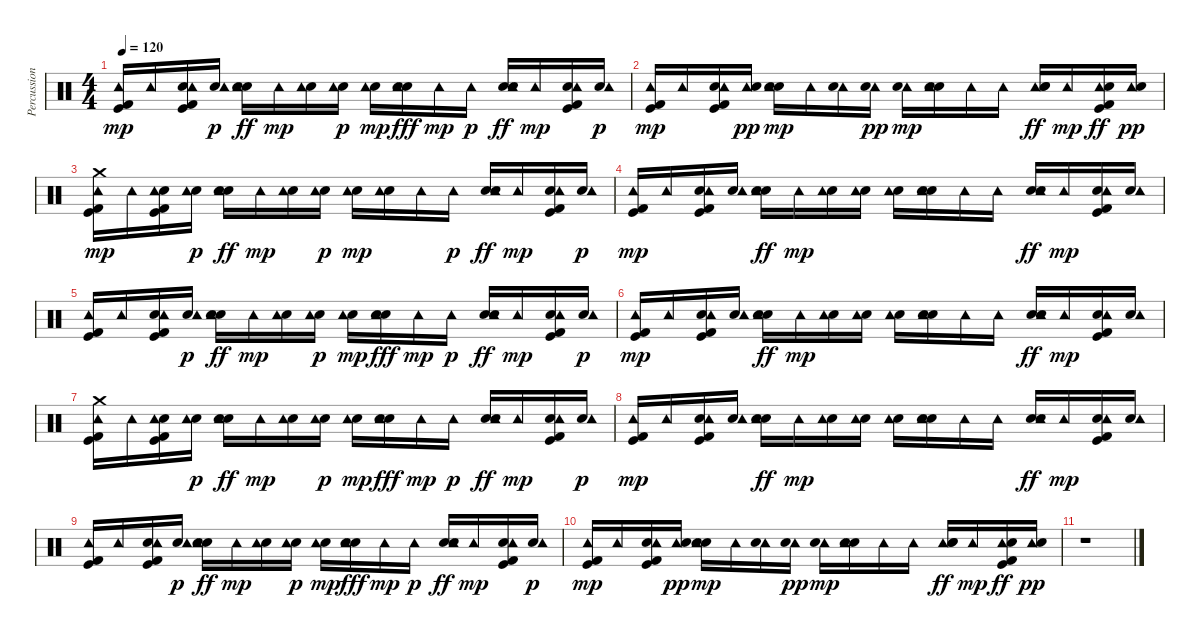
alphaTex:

\track ("Percussions" "Percussion") {instrument percussion}
\staff {score}
\articulation defaults
\ts (4 4)
\tempo 120
\clef neutral
\ks c
("Kick (hit) 2" "Kick (hit)" "Tambourine (hit)").16{dy mp} "Tambourine (hit)".16 ("Electric Snare (hit)" "Kick (hit) 2" "Kick (hit)" "Tambourine (hit)").16 ("Electric Snare (hit)" "Tambourine (hit)").16{dy p} ("Snare (hit) 2" "Tambourine (hit)" "Electric Snare (hit)").16{dy ff} "Tambourine (hit)".16{dy mp} ("Electric Snare (hit)" "Tambourine (hit)").16 ("Electric Snare (hit)" "Tambourine (hit)").16{dy p} ("Electric Snare (hit)" "Tambourine (hit)").16{dy mp} ("Electric Snare (hit)" "Tambourine (hit)" "Snare (hit) 2").16{dy fff} "Tambourine (hit)".16{dy mp} "Tambourine (hit)".16{dy p} ("Snare (hit) 2" "Tambourine (hit)" "Electric Snare (hit)").16{dy ff} "Tambourine (hit)".16{dy mp} ("Electric Snare (hit)" "Kick (hit) 2" "Kick (hit)" "Tambourine (hit)").16 ("Electric Snare (hit)" "Tambourine (hit)").16{dy p} |
("Kick (hit)" "Kick (hit) 2" "Tambourine (hit)").16{dy mp} "Tambourine (hit)".16 ("Electric Snare (hit)" "Kick (hit)" "Kick (hit) 2" "Tambourine (hit)").16 ("Tambourine (hit)" "Electric Snare (hit)").16{dy pp} ("Snare (hit) 2" "Electric Snare (hit)" "Tambourine (hit)").16{dy mp} "Tambourine (hit)".16 ("Tambourine (hit)" "Electric Snare (hit)").16 ("Tambourine (hit)" "Electric Snare (hit)").16{dy pp} ("Tambourine (hit)" "Electric Snare (hit)").16{dy mp} ("Snare (hit) 2" "Electric Snare (hit)" "Tambourine (hit)").16 "Tambourine (hit)".16 "Tambourine (hit)".16 ("Tambourine (hit)" "Snare (hit) 2" "Electric Snare (hit)").16{dy ff} "Tambourine (hit)".16{dy mp} ("Tambourine (hit)" "Electric Snare (hit)" "Kick (hit) 2" "Kick (hit)").16{dy ff} ("Tambourine (hit)" "Electric Snare (hit)").16{dy pp} |
("Kick (hit) 2" "Kick (hit)" "Crash medium (hit)" "Tambourine (hit)").16{dy mp} "Tambourine (hit)".16 ("Electric Snare (hit)" "Kick (hit) 2" "Kick (hit)" "Tambourine (hit)").16 ("Electric Snare (hit)" "Tambourine (hit)").16{dy p} ("Snare (hit) 2" "Tambourine (hit)" "Electric Snare (hit)").16{dy ff} "Tambourine (hit)".16{dy mp} ("Electric Snare (hit)" "Tambourine (hit)").16 ("Electric Snare (hit)" "Tambourine (hit)").16{dy p} ("Electric Snare (hit)" "Tambourine (hit)").16{dy mp} ("Electric Snare (hit)" "Tambourine (hit)").16 "Tambourine (hit)".16 "Tambourine (hit)".16{dy p} ("Snare (hit) 2" "Tambourine (hit)" "Electric Snare (hit)").16{dy ff} "Tambourine (hit)".16{dy mp} ("Electric Snare (hit)" "Kick (hit) 2" "Kick (hit)" "Tambourine (hit)").16 ("Electric Snare (hit)" "Tambourine (hit)").16{dy p} |
("Kick (hit) 2" "Kick (hit)" "Tambourine (hit)").16{dy mp} "Tambourine (hit)".16 ("Electric Snare (hit)" "Kick (hit) 2" "Kick (hit)" "Tambourine (hit)").16 ("Electric Snare (hit)" "Tambourine (hit)").16 ("Snare (hit) 2" "Tambourine (hit)" "Electric Snare (hit)").16{dy ff} "Tambourine (hit)".16{dy mp} ("Electric Snare (hit)" "Tambourine (hit)").16 ("Electric Snare (hit)" "Tambourine (hit)").16 ("Electric Snare (hit)" "Tambourine (hit)").16 ("Electric Snare (hit)" "Snare (hit) 2" "Tambourine (hit)").16 "Tambourine (hit)".16 "Tambourine (hit)".16 ("Snare (hit) 2" "Tambourine (hit)" "Electric Snare (hit)").16{dy ff} "Tambourine (hit)".16{dy mp} ("Electric Snare (hit)" "Kick (hit) 2" "Kick (hit)" "Tambourine (hit)").16 ("Electric Snare (hit)" "Tambourine (hit)").16 |
("Kick (hit) 2" "Kick (hit)" "Tambourine (hit)").16 "Tambourine (hit)".16 ("Electric Snare (hit)" "Kick (hit) 2" "Kick (hit)" "Tambourine (hit)").16 ("Electric Snare (hit)" "Tambourine (hit)").16{dy p} ("Snare (hit) 2" "Tambourine (hit)" "Electric Snare (hit)").16{dy ff} "Tambourine (hit)".16{dy mp} ("Electric Snare (hit)" "Tambourine (hit)").16 ("Electric Snare (hit)" "Tambourine (hit)").16{dy p} ("Electric Snare (hit)" "Tambourine (hit)").16{dy mp} ("Electric Snare (hit)" "Tambourine (hit)" "Snare (hit) 2").16{dy fff} "Tambourine (hit)".16{dy mp} "Tambourine (hit)".16{dy p} ("Snare (hit) 2" "Tambourine (hit)" "Electric Snare (hit)").16{dy ff} "Tambourine (hit)".16{dy mp} ("Electric Snare (hit)" "Kick (hit) 2" "Kick (hit)" "Tambourine (hit)").16 ("Electric Snare (hit)" "Tambourine (hit)").16{dy p} |
("Kick (hit) 2" "Kick (hit)" "Tambourine (hit)").16{dy mp} "Tambourine (hit)".16 ("Electric Snare (hit)" "Kick (hit) 2" "Kick (hit)" "Tambourine (hit)").16 ("Electric Snare (hit)" "Tambourine (hit)").16 ("Snare (hit) 2" "Tambourine (hit)" "Electric Snare (hit)").16{dy ff} "Tambourine (hit)".16{dy mp} ("Electric Snare (hit)" "Tambourine (hit)").16 ("Electric Snare (hit)" "Tambourine (hit)").16 ("Electric Snare (hit)" "Tambourine (hit)").16 ("Electric Snare (hit)" "Snare (hit) 2" "Tambourine (hit)").16 "Tambourine (hit)".16 "Tambourine (hit)".16 ("Snare (hit) 2" "Tambourine (hit)" "Electric Snare (hit)").16{dy ff} "Tambourine (hit)".16{dy mp} ("Electric Snare (hit)" "Kick (hit) 2" "Kick (hit)" "Tambourine (hit)").16 ("Electric Snare (hit)" "Tambourine (hit)").16 |
("Kick (hit) 2" "Kick (hit)" "Crash medium (hit)" "Tambourine (hit)").16{volume 14} "Tambourine (hit)".16 ("Electric Snare (hit)" "Kick (hit) 2" "Kick (hit)" "Tambourine (hit)").16 ("Electric Snare (hit)" "Tambourine (hit)").16{dy p} ("Snare (hit) 2" "Tambourine (hit)" "Electric Snare (hit)").16{dy ff volume 13} "Tambourine (hit)".16{dy mp} ("Electric Snare (hit)" "Tambourine (hit)").16 ("Electric Snare (hit)" "Tambourine (hit)").16{dy p} ("Electric Snare (hit)" "Tambourine (hit)").16{dy mp volume 12} ("Electric Snare (hit)" "Tambourine (hit)" "Snare (hit) 2").16{dy fff} "Tambourine (hit)".16{dy mp} "Tambourine (hit)".16{dy p} ("Snare (hit) 2" "Tambourine (hit)" "Electric Snare (hit)").16{dy ff volume 11} "Tambourine (hit)".16{dy mp} ("Electric Snare (hit)" "Kick (hit) 2" "Kick (hit)" "Tambourine (hit)").16 ("Electric Snare (hit)" "Tambourine (hit)").16{dy p} |
("Kick (hit) 2" "Kick (hit)" "Tambourine (hit)").16{dy mp volume 10} "Tambourine (hit)".16 ("Electric Snare (hit)" "Kick (hit) 2" "Kick (hit)" "Tambourine (hit)").16 ("Electric Snare (hit)" "Tambourine (hit)").16 ("Snare (hit) 2" "Tambourine (hit)" "Electric Snare (hit)").16{dy ff volume 10} "Tambourine (hit)".16{dy mp} ("Electric Snare (hit)" "Tambourine (hit)").16 ("Electric Snare (hit)" "Tambourine (hit)").16 ("Electric Snare (hit)" "Tambourine (hit)").16{volume 9} ("Electric Snare (hit)" "Snare (hit) 2" "Tambourine (hit)").16 "Tambourine (hit)".16 "Tambourine (hit)".16 ("Snare (hit) 2" "Tambourine (hit)" "Electric Snare (hit)").16{dy ff volume 8} "Tambourine (hit)".16{dy mp} ("Electric Snare (hit)" "Kick (hit) 2" "Kick (hit)" "Tambourine (hit)").16 ("Electric Snare (hit)" "Tambourine (hit)").16 |
("Kick (hit) 2" "Kick (hit)" "Tambourine (hit)").16{volume 7} "Tambourine (hit)".16 ("Electric Snare (hit)" "Kick (hit) 2" "Kick (hit)" "Tambourine (hit)").16 ("Electric Snare (hit)" "Tambourine (hit)").16{dy p} ("Snare (hit) 2" "Tambourine (hit)" "Electric Snare (hit)").16{dy ff volume 6} "Tambourine (hit)".16{dy mp} ("Electric Snare (hit)" "Tambourine (hit)").16 ("Electric Snare (hit)" "Tambourine (hit)").16{dy p} ("Electric Snare (hit)" "Tambourine (hit)").16{dy mp volume 5} ("Electric Snare (hit)" "Tambourine (hit)" "Snare (hit) 2").16{dy fff} "Tambourine (hit)".16{dy mp} "Tambourine (hit)".16{dy p} ("Snare (hit) 2" "Tambourine (hit)" "Electric Snare (hit)").16{dy ff volume 4} "Tambourine (hit)".16{dy mp} ("Electric Snare (hit)" "Kick (hit) 2" "Kick (hit)" "Tambourine (hit)").16 ("Electric Snare (hit)" "Tambourine (hit)").16{dy p} |
("Kick (hit)" "Kick (hit) 2" "Tambourine (hit)").16{dy mp volume 4} "Tambourine (hit)".16 ("Electric Snare (hit)" "Kick (hit)" "Kick (hit) 2" "Tambourine (hit)").16 ("Tambourine (hit)" "Electric Snare (hit)").16{dy pp} ("Snare (hit) 2" "Electric Snare (hit)" "Tambourine (hit)").16{dy mp volume 3} "Tambourine (hit)".16 ("Tambourine (hit)" "Electric Snare (hit)").16 ("Tambourine (hit)" "Electric Snare (hit)").16{dy pp} ("Tambourine (hit)" "Electric Snare (hit)").16{dy mp volume 2} ("Snare (hit) 2" "Electric Snare (hit)" "Tambourine (hit)").16 "Tambourine (hit)".16 "Tambourine (hit)".16 ("Tambourine (hit)" "Snare (hit) 2" "Electric Snare (hit)").16{dy ff volume 1} "Tambourine (hit)".16{dy mp} ("Tambourine (hit)" "Electric Snare (hit)" "Kick (hit) 2" "Kick (hit)").16{dy ff} ("Tambourine (hit)" "Electric Snare (hit)").16{dy pp} |
r.1
